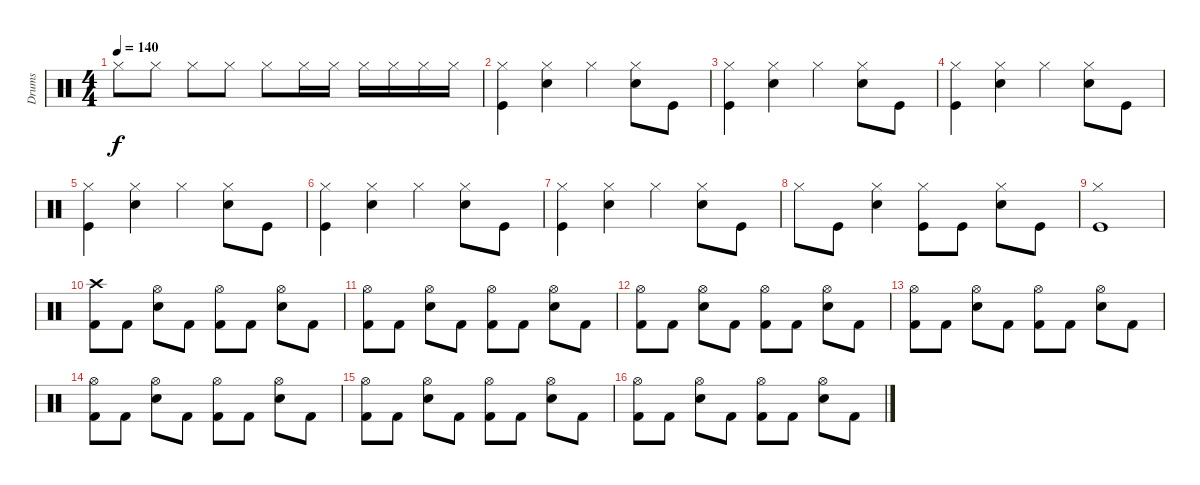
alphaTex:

\track ("Drums" "Drums") {instrument percussion}
\staff {score}
\articulation defaults
\ts (4 4)
\tempo 140
\clef neutral
\ks c "Hi-Hat (closed)".8{dy f} "Hi-Hat (closed)".8 "Hi-Hat (closed)".8 "Hi-Hat (closed)".8 "Hi-Hat (closed)".8 "Hi-Hat (closed)".16 "Hi-Hat (closed)".16 "Hi-Hat (closed)".16 "Hi-Hat (closed)".16 "Hi-Hat (closed)".16 "Hi-Hat (closed)".16
|
("Hi-Hat (closed)" "Kick (hit)").4 ("Hi-Hat (closed)" "Snare (hit) 2").4 "Hi-Hat (closed)".4 ("Hi-Hat (closed)" "Snare (hit) 2").8 "Kick (hit)".8 |
("Hi-Hat (closed)" "Kick (hit)").4 ("Hi-Hat (closed)" "Snare (hit) 2").4 "Hi-Hat (closed)".4 ("Hi-Hat (closed)" "Snare (hit) 2").8 "Kick (hit)".8 |
("Hi-Hat (closed)" "Kick (hit)").4 ("Hi-Hat (closed)" "Snare (hit) 2").4 "Hi-Hat (closed)".4 ("Hi-Hat (closed)" "Snare (hit) 2").8 "Kick (hit)".8 |
("Hi-Hat (closed)" "Kick (hit)").4 ("Hi-Hat (closed)" "Snare (hit) 2").4 "Hi-Hat (closed)".4 ("Hi-Hat (closed)" "Snare (hit) 2").8 "Kick (hit)".8 |
("Hi-Hat (closed)" "Kick (hit)").4 ("Hi-Hat (closed)" "Snare (hit) 2").4 "Hi-Hat (closed)".4 ("Hi-Hat (closed)" "Snare (hit) 2").8 "Kick (hit)".8 |
("Hi-Hat (closed)" "Kick (hit)").4 ("Hi-Hat (closed)" "Snare (hit) 2").4 "Hi-Hat (closed)".4 ("Hi-Hat (closed)" "Snare (hit) 2").8 "Kick (hit)".8 |
"Hi-Hat (closed)".8 "Kick (hit)".8 ("Hi-Hat (closed)" "Snare (hit) 2").4 ("Hi-Hat (closed)" "Kick (hit)").8 "Kick (hit)".8 ("Hi-Hat (closed)" "Snare (hit) 2").8 "Kick (hit)".8 |
("Hi-Hat (closed)" "Kick (hit)").1 |
("Crash high (hit)" "Kick (hit) 2").8 "Kick (hit) 2".8 ("Hi-Hat (open)" "Electric Snare (hit)").8 "Kick (hit) 2".8 ("Hi-Hat (open)" "Kick (hit) 2").8 "Kick (hit) 2".8 ("Hi-Hat (open)" "Electric Snare (hit)").8 "Kick (hit) 2".8 |
("Hi-Hat (open)" "Kick (hit) 2").8 "Kick (hit) 2".8 ("Hi-Hat (open)" "Electric Snare (hit)").8 "Kick (hit) 2".8 ("Hi-Hat (open)" "Kick (hit) 2").8 "Kick (hit) 2".8 ("Hi-Hat (open)" "Electric Snare (hit)").8 "Kick (hit) 2".8 |
("Hi-Hat (open)" "Kick (hit) 2").8 "Kick (hit) 2".8 ("Hi-Hat (open)" "Electric Snare (hit)").8 "Kick (hit) 2".8 ("Hi-Hat (open)" "Kick (hit) 2").8 "Kick (hit) 2".8 ("Hi-Hat (open)" "Electric Snare (hit)").8 "Kick (hit) 2".8 |
("Hi-Hat (open)" "Kick (hit) 2").8 "Kick (hit) 2".8 ("Hi-Hat (open)" "Electric Snare (hit)").8 "Kick (hit) 2".8 ("Hi-Hat (open)" "Kick (hit) 2").8 "Kick (hit) 2".8 ("Hi-Hat (open)" "Electric Snare (hit)").8 "Kick (hit) 2".8 |
("Hi-Hat (open)" "Kick (hit) 2").8 "Kick (hit) 2".8 ("Hi-Hat (open)" "Electric Snare (hit)").8 "Kick (hit) 2".8 ("Hi-Hat (open)" "Kick (hit) 2").8 "Kick (hit) 2".8 ("Hi-Hat (open)" "Electric Snare (hit)").8 "Kick (hit) 2".8 |
("Hi-Hat (open)" "Kick (hit) 2").8 "Kick (hit) 2".8 ("Hi-Hat (open)" "Electric Snare (hit)").8 "Kick (hit) 2".8 ("Hi-Hat (open)" "Kick (hit) 2").8 "Kick (hit) 2".8 ("Hi-Hat (open)" "Electric Snare (hit)").8 "Kick (hit) 2".8 |
("Hi-Hat (open)" "Kick (hit) 2").8 "Kick (hit) 2".8 ("Hi-Hat (open)" "Electric Snare (hit)").8 "Kick (hit) 2".8 ("Hi-Hat (open)" "Kick (hit) 2").8 "Kick (hit) 2".8 ("Hi-Hat (open)" "Electric Snare (hit)").8 "Kick (hit) 2".8
